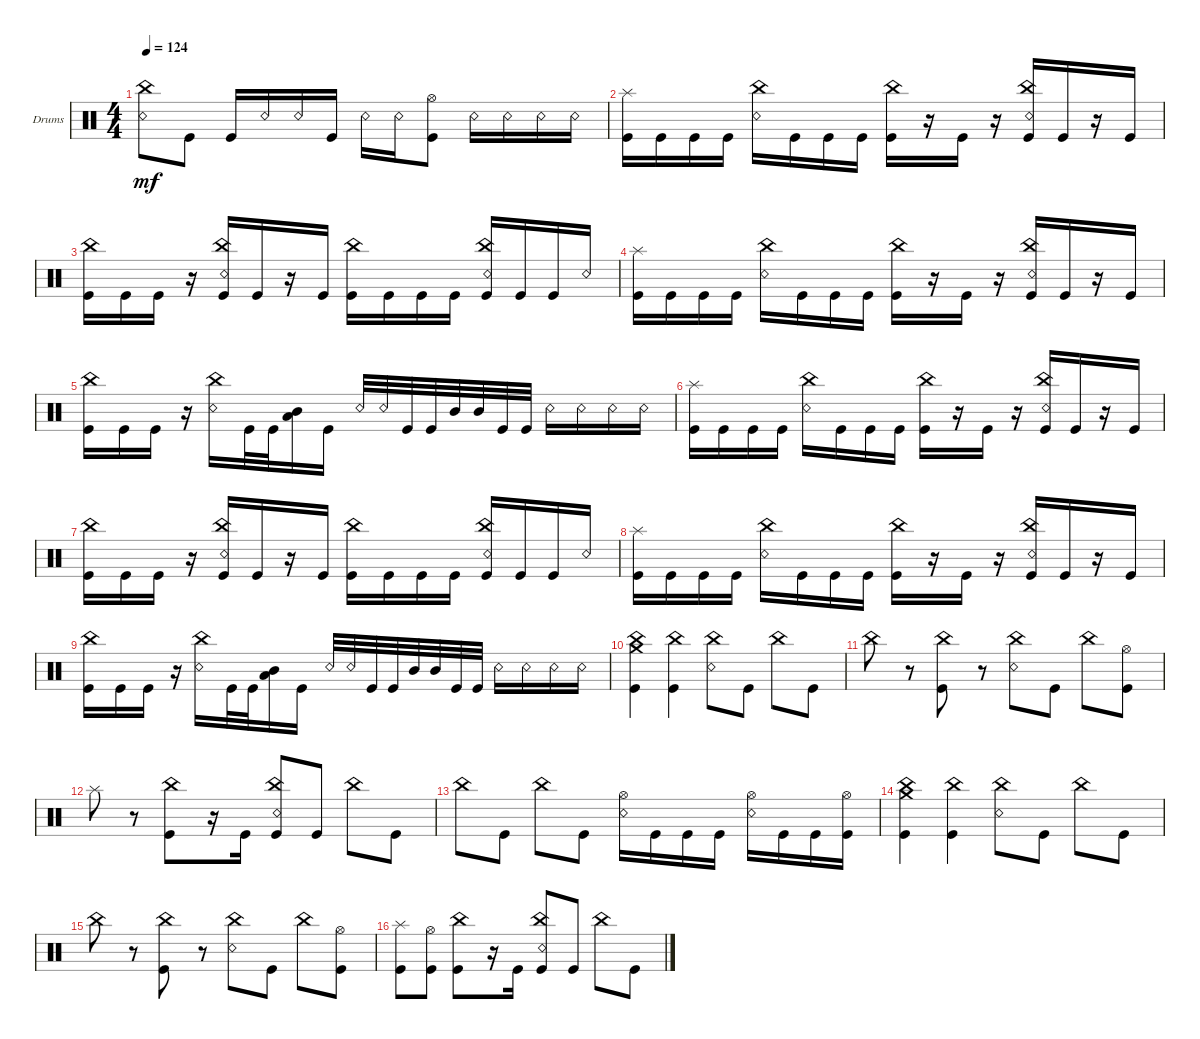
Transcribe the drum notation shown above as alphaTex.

\defaultSystemsLayout 4
\bracketExtendMode groupsimilarinstruments
\firstSystemTrackNameOrientation horizontal
\otherSystemsTrackNameOrientation horizontal
\track ("Drums" "Drums") {instrument percussion}
\staff {score}
\articulation defaults
\ts (4 4)
\tempo 124
\clef neutral
\ks c
("Snare (rim shot)" "China (hit)").8{dy mf} "Kick (hit)".8 "Kick (hit)".16 "Snare (rim shot)".16 "Snare (rim shot)".16 "Kick (hit)".16 "Snare (rim shot)".16 "Snare (rim shot)".16 ("Kick (hit)" "Hi-Hat (open)").8 "Snare (rim shot)".16 "Snare (rim shot)".16 "Snare (rim shot)".16 "Snare (rim shot)".16 |
("Kick (hit)" "Splash (hit)").16 "Kick (hit)".16 "Kick (hit)".16 "Kick (hit)".16 ("China (hit)" "Snare (rim shot)").16 "Kick (hit)".16 "Kick (hit)".16 "Kick (hit)".16 ("Kick (hit)" "China (hit)").16 r.16 "Kick (hit)".16 r.16 ("Kick (hit)" "China (hit)" "Snare (rim shot)").16 "Kick (hit)".16 r.16 "Kick (hit)".16 |
("Kick (hit)" "China (hit)").16 "Kick (hit)".16 "Kick (hit)".16 r.16 ("Kick (hit)" "China (hit)" "Snare (rim shot)").16 "Kick (hit)".16 r.16 "Kick (hit)".16 ("Kick (hit)" "China (hit)").16 "Kick (hit)".16 "Kick (hit)".16 "Kick (hit)".16 ("Kick (hit)" "Snare (rim shot)" "China (hit)").16 "Kick (hit)".16 "Kick (hit)".16 "Snare (rim shot)".16 |
("Kick (hit)" "Splash (hit)").16 "Kick (hit)".16 "Kick (hit)".16 "Kick (hit)".16 ("China (hit)" "Snare (rim shot)").16 "Kick (hit)".16 "Kick (hit)".16 "Kick (hit)".16 ("Kick (hit)" "China (hit)").16 r.16 "Kick (hit)".16 r.16 ("Kick (hit)" "China (hit)" "Snare (rim shot)").16 "Kick (hit)".16 r.16 "Kick (hit)".16 |
("Kick (hit)" "China (hit)").16 "Kick (hit)".16 "Kick (hit)".16 r.16 ("Snare (rim shot)" "China (hit)").16 "Kick (hit)".32 "Kick (hit)".32 ("Mid Tom (hit)" "Low Tom (hit)").16 "Kick (hit)".16 "Snare (rim shot)".32 "Snare (rim shot)".32 "Kick (hit)".32 "Kick (hit)".32 "Mid Tom (hit)".32 "Mid Tom (hit)".32 "Kick (hit)".32 "Kick (hit)".32 "Snare (rim shot)".16 "Snare (rim shot)".16 "Snare (rim shot)".16 "Snare (rim shot)".16 |
("Kick (hit)" "Splash (hit)").16 "Kick (hit)".16 "Kick (hit)".16 "Kick (hit)".16 ("China (hit)" "Snare (rim shot)").16 "Kick (hit)".16 "Kick (hit)".16 "Kick (hit)".16 ("Kick (hit)" "China (hit)").16 r.16 "Kick (hit)".16 r.16 ("Kick (hit)" "China (hit)" "Snare (rim shot)").16 "Kick (hit)".16 r.16 "Kick (hit)".16 |
("Kick (hit)" "China (hit)").16 "Kick (hit)".16 "Kick (hit)".16 r.16 ("Kick (hit)" "China (hit)" "Snare (rim shot)").16 "Kick (hit)".16 r.16 "Kick (hit)".16 ("Kick (hit)" "China (hit)").16 "Kick (hit)".16 "Kick (hit)".16 "Kick (hit)".16 ("Kick (hit)" "China (hit)" "Snare (rim shot)").16 "Kick (hit)".16 "Kick (hit)".16 "Snare (rim shot)".16 |
("Kick (hit)" "Splash (hit)").16 "Kick (hit)".16 "Kick (hit)".16 "Kick (hit)".16 ("China (hit)" "Snare (rim shot)").16 "Kick (hit)".16 "Kick (hit)".16 "Kick (hit)".16 ("Kick (hit)" "China (hit)").16 r.16 "Kick (hit)".16 r.16 ("Kick (hit)" "China (hit)" "Snare (rim shot)").16 "Kick (hit)".16 r.16 "Kick (hit)".16 |
("Kick (hit)" "China (hit)").16 "Kick (hit)".16 "Kick (hit)".16 r.16 ("China (hit)" "Snare (rim shot)").16 "Kick (hit)".32 "Kick (hit)".32 ("Mid Tom (hit)" "Low Tom (hit)").16 "Kick (hit)".16 "Snare (rim shot)".32 "Snare (rim shot)".32 "Kick (hit)".32 "Kick (hit)".32 "Mid Tom (hit)".32 "Mid Tom (hit)".32 "Kick (hit)".32 "Kick (hit)".32 "Snare (rim shot)".16 "Snare (rim shot)".16 "Snare (rim shot)".16 "Snare (rim shot)".16 |
("Kick (hit)" "China (hit)" "Crash medium (hit)").4 ("China (hit)" "Kick (hit)").4 ("China (hit)" "Snare (rim shot)").8 "Kick (hit)".8 "China (hit)".8 "Kick (hit)".8 |
"China (hit)".8 r.8 ("China (hit)" "Kick (hit)").8 r.8 ("China (hit)" "Snare (rim shot)").8 "Kick (hit)".8 "China (hit)".8 ("Kick (hit)" "Hi-Hat (open)").8 |
"Splash (hit)".8 r.8 ("Kick (hit)" "China (hit)").8 r.16 "Kick (hit)".16 ("Kick (hit)" "China (hit)" "Snare (rim shot)").8 "Kick (hit)".8 "China (hit)".8 "Kick (hit)".8 |
"China (hit)".8 "Kick (hit)".8 "China (hit)".8 "Kick (hit)".8 ("Snare (rim shot)" "Hi-Hat (open)").16 "Kick (hit)".16 "Kick (hit)".16 "Kick (hit)".16 ("Snare (rim shot)" "Hi-Hat (open)").16 "Kick (hit)".16 "Kick (hit)".16 ("Kick (hit)" "Hi-Hat (open)").16 |
("Kick (hit)" "China (hit)" "Crash medium (hit)").4 ("China (hit)" "Kick (hit)").4 ("China (hit)" "Snare (rim shot)").8 "Kick (hit)".8 "China (hit)".8 "Kick (hit)".8 |
"China (hit)".8 r.8 ("China (hit)" "Kick (hit)").8 r.8 ("China (hit)" "Snare (rim shot)").8 "Kick (hit)".8 "China (hit)".8 ("Kick (hit)" "Hi-Hat (open)").8 |
("Splash (hit)" "Kick (hit)").8 ("Kick (hit)" "Hi-Hat (open)").8 ("Kick (hit)" "China (hit)").8 r.16 "Kick (hit)".16 ("Kick (hit)" "China (hit)" "Snare (rim shot)").8 "Kick (hit)".8 "China (hit)".8 "Kick (hit)".8
